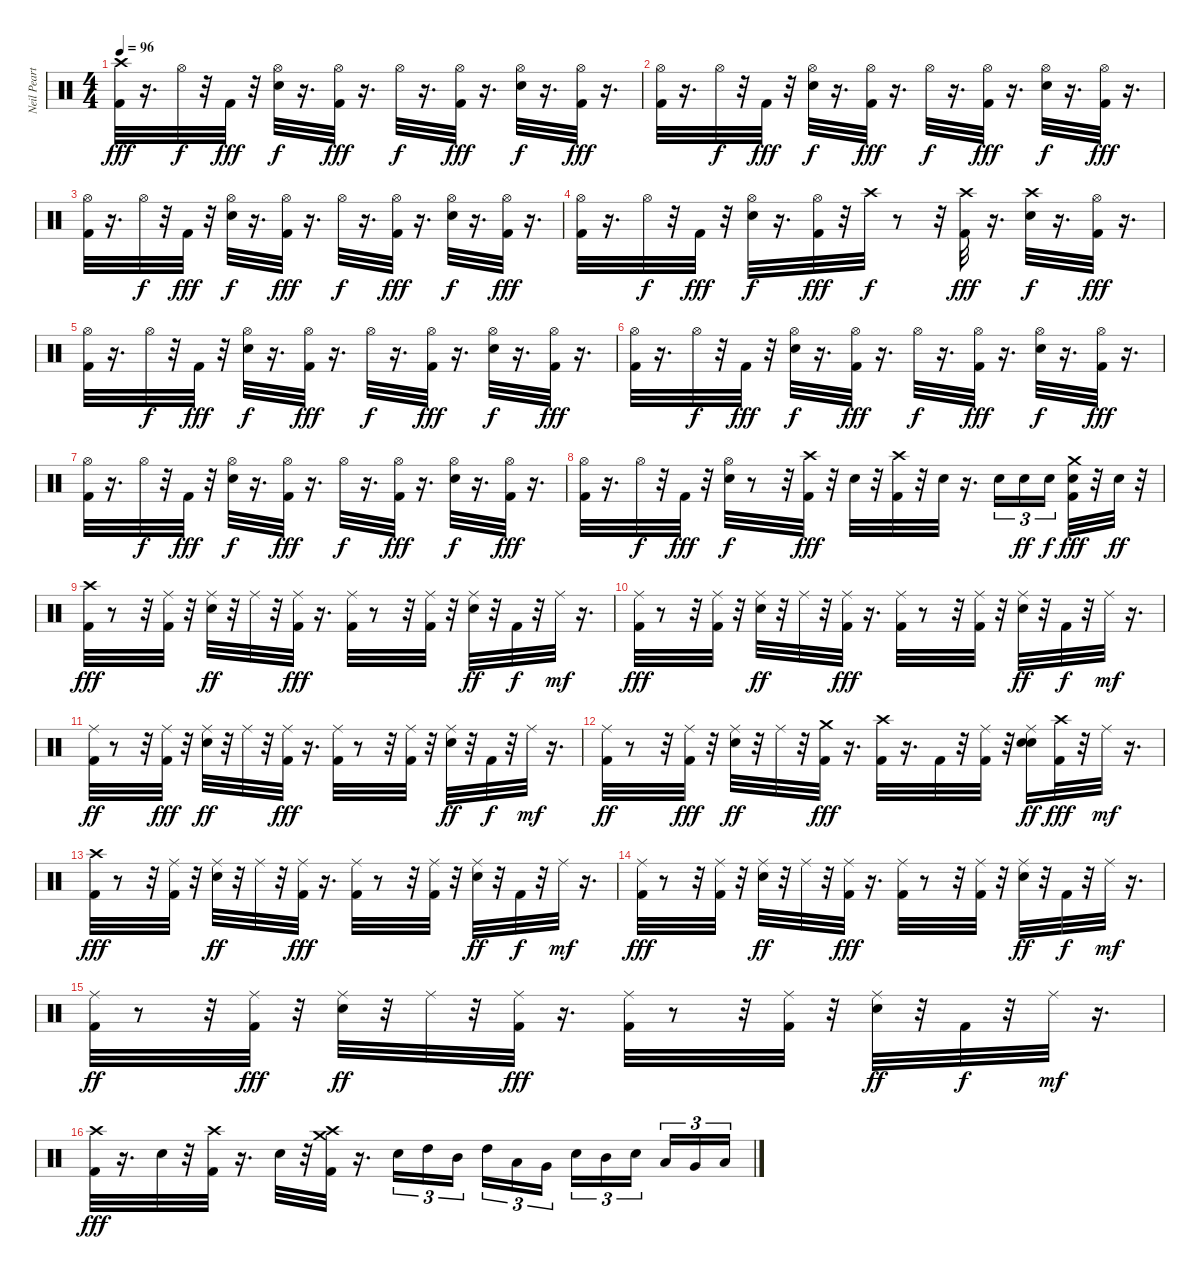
\track ("Neil Peart" "Neil Peart") {instrument percussion}
\staff {score}
\articulation defaults
\ts (4 4)
\tempo 96
\clef neutral
\ks c
("Crash high (hit)" "Kick (hit) 2").32{dy fff} r.16{d} "Hi-Hat (open)".32{dy f} r.32 "Kick (hit) 2".32{dy fff} r.32 ("Hi-Hat (open)" "Snare (hit) 2").32{dy f} r.16{d} ("Hi-Hat (open)" "Kick (hit) 2").32{dy fff} r.16{d} "Hi-Hat (open)".32{dy f} r.16{d} ("Hi-Hat (open)" "Kick (hit) 2").32{dy fff} r.16{d} ("Hi-Hat (open)" "Snare (hit) 2").32{dy f} r.16{d} ("Hi-Hat (open)" "Kick (hit) 2").32{dy fff} r.16{d} |
("Hi-Hat (open)" "Kick (hit) 2").32 r.16{d} "Hi-Hat (open)".32{dy f} r.32 "Kick (hit) 2".32{dy fff} r.32 ("Hi-Hat (open)" "Snare (hit) 2").32{dy f} r.16{d} ("Hi-Hat (open)" "Kick (hit) 2").32{dy fff} r.16{d} "Hi-Hat (open)".32{dy f} r.16{d} ("Hi-Hat (open)" "Kick (hit) 2").32{dy fff} r.16{d} ("Hi-Hat (open)" "Snare (hit) 2").32{dy f} r.16{d} ("Hi-Hat (open)" "Kick (hit) 2").32{dy fff} r.16{d} |
("Hi-Hat (open)" "Kick (hit) 2").32 r.16{d} "Hi-Hat (open)".32{dy f} r.32 "Kick (hit) 2".32{dy fff} r.32 ("Hi-Hat (open)" "Snare (hit) 2").32{dy f} r.16{d} ("Hi-Hat (open)" "Kick (hit) 2").32{dy fff} r.16{d} "Hi-Hat (open)".32{dy f} r.16{d} ("Hi-Hat (open)" "Kick (hit) 2").32{dy fff} r.16{d} ("Hi-Hat (open)" "Snare (hit) 2").32{dy f} r.16{d} ("Hi-Hat (open)" "Kick (hit) 2").32{dy fff} r.16{d} |
("Hi-Hat (open)" "Kick (hit) 2").32 r.16{d} "Hi-Hat (open)".32{dy f} r.32 "Kick (hit) 2".32{dy fff} r.32 ("Hi-Hat (open)" "Snare (hit) 2").32{dy f} r.16{d} ("Hi-Hat (open)" "Kick (hit) 2").32{dy fff} r.32 "Crash high (hit)".32{dy f} r.8 r.32 ("Crash high (hit)" "Kick (hit) 2").32{dy fff} r.16{d} ("Crash high (hit)" "Snare (hit) 2").32{dy f} r.16{d} ("Hi-Hat (open)" "Kick (hit) 2").32{dy fff} r.16{d} |
("Hi-Hat (open)" "Kick (hit) 2").32 r.16{d} "Hi-Hat (open)".32{dy f} r.32 "Kick (hit) 2".32{dy fff} r.32 ("Hi-Hat (open)" "Snare (hit) 2").32{dy f} r.16{d} ("Hi-Hat (open)" "Kick (hit) 2").32{dy fff} r.16{d} "Hi-Hat (open)".32{dy f} r.16{d} ("Hi-Hat (open)" "Kick (hit) 2").32{dy fff} r.16{d} ("Hi-Hat (open)" "Snare (hit) 2").32{dy f} r.16{d} ("Hi-Hat (open)" "Kick (hit) 2").32{dy fff} r.16{d} |
("Hi-Hat (open)" "Kick (hit) 2").32 r.16{d} "Hi-Hat (open)".32{dy f} r.32 "Kick (hit) 2".32{dy fff} r.32 ("Hi-Hat (open)" "Snare (hit) 2").32{dy f} r.16{d} ("Hi-Hat (open)" "Kick (hit) 2").32{dy fff} r.16{d} "Hi-Hat (open)".32{dy f} r.16{d} ("Hi-Hat (open)" "Kick (hit) 2").32{dy fff} r.16{d} ("Hi-Hat (open)" "Snare (hit) 2").32{dy f} r.16{d} ("Hi-Hat (open)" "Kick (hit) 2").32{dy fff} r.16{d} |
("Hi-Hat (open)" "Kick (hit) 2").32 r.16{d} "Hi-Hat (open)".32{dy f} r.32 "Kick (hit) 2".32{dy fff} r.32 ("Hi-Hat (open)" "Snare (hit) 2").32{dy f} r.16{d} ("Hi-Hat (open)" "Kick (hit) 2").32{dy fff} r.16{d} "Hi-Hat (open)".32{dy f} r.16{d} ("Hi-Hat (open)" "Kick (hit) 2").32{dy fff} r.16{d} ("Hi-Hat (open)" "Snare (hit) 2").32{dy f} r.16{d} ("Hi-Hat (open)" "Kick (hit) 2").32{dy fff} r.16{d} |
("Hi-Hat (open)" "Kick (hit) 2").32 r.16{d} "Hi-Hat (open)".32{dy f} r.32 "Kick (hit) 2".32{dy fff} r.32 ("Hi-Hat (open)" "Snare (hit) 2").32{dy f} r.8 r.32 ("Crash high (hit)" "Kick (hit) 2").32{dy fff} r.32 "Snare (hit) 2".32 r.32 ("Crash high (hit)" "Kick (hit) 2").32 r.32 "Snare (hit) 2".32 r.16{d} "Snare (hit) 2".16{tu (3 2)} "Snare (hit) 2".16{tu (3 2) dy ff} "Snare (hit) 2".16{tu (3 2) dy f beam splitsecondary} ("Crash medium (hit)" "Snare (hit) 2" "Kick (hit) 2").32{dy fff} r.32 "Snare (hit) 2".32{dy ff} r.32 |
("Crash high (hit)" "Kick (hit) 2").32{dy fff} r.8 r.32 ("Ride (middle)" "Kick (hit) 2").32 r.32 ("Ride (middle)" "Snare (hit) 2").32{dy ff} r.32 "Ride (middle)".32 r.32 ("Ride (middle)" "Kick (hit) 2").32{dy fff} r.16{d} ("Ride (middle)" "Kick (hit) 2").32 r.8 r.32 ("Ride (middle)" "Kick (hit) 2").32 r.32 ("Ride (middle)" "Snare (hit) 2").32{dy ff} r.32 "Kick (hit) 2".32{dy f} r.32 "Ride (middle)".32{dy mf} r.16{d} |
("Ride (middle)" "Kick (hit) 2").32{dy fff} r.8 r.32 ("Ride (middle)" "Kick (hit) 2").32 r.32 ("Ride (middle)" "Snare (hit) 2").32{dy ff} r.32 "Ride (middle)".32 r.32 ("Ride (middle)" "Kick (hit) 2").32{dy fff} r.16{d} ("Ride (middle)" "Kick (hit) 2").32 r.8 r.32 ("Ride (middle)" "Kick (hit) 2").32 r.32 ("Ride (middle)" "Snare (hit) 2").32{dy ff} r.32 "Kick (hit) 2".32{dy f} r.32 "Ride (middle)".32{dy mf} r.16{d} |
("Kick (hit) 2" "Ride (middle)").32{dy ff} r.8 r.32 ("Kick (hit) 2" "Ride (middle)").32{dy fff} r.32 ("Snare (hit) 2" "Ride (middle)").32{dy ff} r.32 "Ride (middle)".32 r.32 ("Kick (hit) 2" "Ride (middle)").32{dy fff} r.16{d} ("Kick (hit) 2" "Ride (middle)").32 r.8 r.32 ("Kick (hit) 2" "Ride (middle)").32 r.32 ("Snare (hit) 2" "Ride (middle)").32{dy ff} r.32 "Kick (hit) 2".32{dy f} r.32 "Ride (middle)".32{dy mf} r.16{d} |
("Kick (hit) 2" "Ride (middle)").32{dy ff} r.8 r.32 ("Kick (hit) 2" "Ride (middle)").32{dy fff} r.32 ("Snare (hit) 2" "Ride (middle)").32{dy ff} r.32 "Ride (middle)".32 r.32 ("Crash medium (hit)" "Kick (hit) 2").32{dy fff} r.16{d} ("Crash high (hit)" "Kick (hit) 2").32 r.16{d} "Kick (hit) 2".32 r.32 ("Kick (hit) 2" "Ride (middle)").32 r.32 ("Snare (hit) 2" "Snare (hit) 2" "Ride (middle)").16{dy ff} ("Crash high (hit)" "Kick (hit) 2").32{dy fff} r.32 "Ride (middle)".32{dy mf} r.16{d} |
("Crash high (hit)" "Kick (hit) 2").32{dy fff} r.8 r.32 ("Ride (middle)" "Kick (hit) 2").32 r.32 ("Ride (middle)" "Snare (hit) 2").32{dy ff} r.32 "Ride (middle)".32 r.32 ("Ride (middle)" "Kick (hit) 2").32{dy fff} r.16{d} ("Ride (middle)" "Kick (hit) 2").32 r.8 r.32 ("Ride (middle)" "Kick (hit) 2").32 r.32 ("Ride (middle)" "Snare (hit) 2").32{dy ff} r.32 "Kick (hit) 2".32{dy f} r.32 "Ride (middle)".32{dy mf} r.16{d} |
("Ride (middle)" "Kick (hit) 2").32{dy fff} r.8 r.32 ("Ride (middle)" "Kick (hit) 2").32 r.32 ("Ride (middle)" "Snare (hit) 2").32{dy ff} r.32 "Ride (middle)".32 r.32 ("Ride (middle)" "Kick (hit) 2").32{dy fff} r.16{d} ("Ride (middle)" "Kick (hit) 2").32 r.8 r.32 ("Ride (middle)" "Kick (hit) 2").32 r.32 ("Ride (middle)" "Snare (hit) 2").32{dy ff} r.32 "Kick (hit) 2".32{dy f} r.32 "Ride (middle)".32{dy mf} r.16{d} |
("Kick (hit) 2" "Ride (middle)").32{dy ff} r.8 r.32 ("Kick (hit) 2" "Ride (middle)").32{dy fff} r.32 ("Snare (hit) 2" "Ride (middle)").32{dy ff} r.32 "Ride (middle)".32 r.32 ("Kick (hit) 2" "Ride (middle)").32{dy fff} r.16{d} ("Kick (hit) 2" "Ride (middle)").32 r.8 r.32 ("Kick (hit) 2" "Ride (middle)").32 r.32 ("Snare (hit) 2" "Ride (middle)").32{dy ff} r.32 "Kick (hit) 2".32{dy f} r.32 "Ride (middle)".32{dy mf} r.16{d} |
("Crash high (hit)" "Kick (hit) 2").32{dy fff} r.16{d} "Snare (hit) 2".32 r.32 ("Crash high (hit)" "Kick (hit) 2").32 r.16{d} "Snare (hit) 2".32 r.32 ("Crash medium (hit)" "Crash high (hit)" "Kick (hit) 2").32 r.16{d} "Snare (hit) 2".16{tu (3 2)} "High Tom (hit)".16{tu (3 2)} "Mid Tom (hit)".16{tu (3 2) beam splitsecondary} "High Tom (hit)".16{tu (3 2)} "Low Tom (hit)".16{tu (3 2)} "Very Low Tom (hit)".16{tu (3 2)} "Snare (hit) 2".16{tu (3 2)} "Mid Tom (hit)".16{tu (3 2)} "Snare (hit) 2".16{tu (3 2) beam splitsecondary} "Low Tom (hit)".16{tu (3 2)} "Very Low Tom (hit)".16{tu (3 2)} "Low Floor Tom (hit)".16{tu (3 2)}
